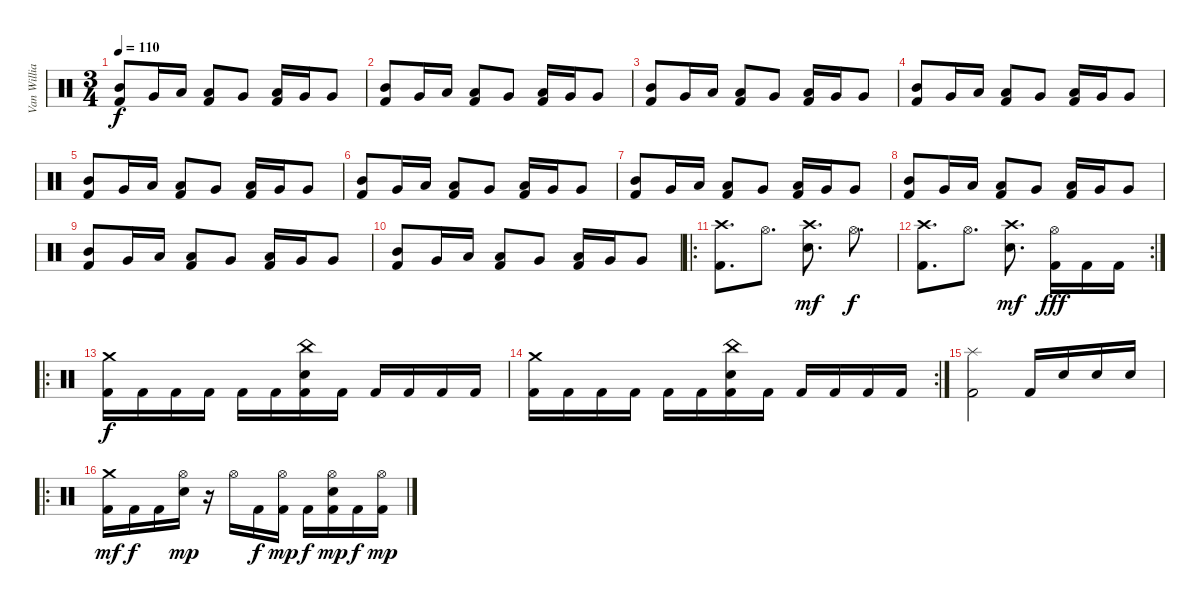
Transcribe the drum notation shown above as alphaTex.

\track ("Van Williams" "Van Willia") {instrument percussion}
\staff {score}
\articulation defaults
\ts (3 4)
\tempo 110
\clef neutral
\ks c
("Mid Tom (hit)" "Kick (hit) 2").8{dy f} "Very Low Tom (hit)".16 "Low Tom (hit)".16 ("Low Tom (hit)" "Kick (hit) 2").8 "Very Low Tom (hit)".8 ("Low Floor Tom (hit)" "Kick (hit) 2").16 "Very Low Tom (hit)".16 "Very Low Tom (hit)".8 |
("Mid Tom (hit)" "Kick (hit) 2").8 "Very Low Tom (hit)".16 "Low Tom (hit)".16 ("Low Tom (hit)" "Kick (hit) 2").8 "Very Low Tom (hit)".8 ("Low Floor Tom (hit)" "Kick (hit) 2").16 "Very Low Tom (hit)".16 "Very Low Tom (hit)".8 |
("Mid Tom (hit)" "Kick (hit) 2").8 "Very Low Tom (hit)".16 "Low Tom (hit)".16 ("Low Tom (hit)" "Kick (hit) 2").8 "Very Low Tom (hit)".8 ("Low Floor Tom (hit)" "Kick (hit) 2").16 "Very Low Tom (hit)".16 "Very Low Tom (hit)".8 |
("Mid Tom (hit)" "Kick (hit) 2").8 "Very Low Tom (hit)".16 "Low Tom (hit)".16 ("Low Tom (hit)" "Kick (hit) 2").8 "Very Low Tom (hit)".8 ("Low Floor Tom (hit)" "Kick (hit) 2").16 "Very Low Tom (hit)".16 "Very Low Tom (hit)".8 |
("Mid Tom (hit)" "Kick (hit) 2").8 "Very Low Tom (hit)".16 "Low Tom (hit)".16 ("Low Tom (hit)" "Kick (hit) 2").8 "Very Low Tom (hit)".8 ("Low Floor Tom (hit)" "Kick (hit) 2").16 "Very Low Tom (hit)".16 "Very Low Tom (hit)".8 |
("Mid Tom (hit)" "Kick (hit) 2").8 "Very Low Tom (hit)".16 "Low Tom (hit)".16 ("Low Tom (hit)" "Kick (hit) 2").8 "Very Low Tom (hit)".8 ("Low Floor Tom (hit)" "Kick (hit) 2").16 "Very Low Tom (hit)".16 "Very Low Tom (hit)".8 |
("Mid Tom (hit)" "Kick (hit) 2").8 "Very Low Tom (hit)".16 "Low Tom (hit)".16 ("Low Tom (hit)" "Kick (hit) 2").8 "Very Low Tom (hit)".8 ("Low Floor Tom (hit)" "Kick (hit) 2").16 "Very Low Tom (hit)".16 "Very Low Tom (hit)".8 |
("Mid Tom (hit)" "Kick (hit) 2").8 "Very Low Tom (hit)".16 "Low Tom (hit)".16 ("Low Tom (hit)" "Kick (hit) 2").8 "Very Low Tom (hit)".8 ("Low Floor Tom (hit)" "Kick (hit) 2").16 "Very Low Tom (hit)".16 "Very Low Tom (hit)".8 |
("Mid Tom (hit)" "Kick (hit) 2").8 "Very Low Tom (hit)".16 "Low Tom (hit)".16 ("Low Tom (hit)" "Kick (hit) 2").8 "Very Low Tom (hit)".8 ("Low Floor Tom (hit)" "Kick (hit) 2").16 "Very Low Tom (hit)".16 "Very Low Tom (hit)".8 |
("Mid Tom (hit)" "Kick (hit) 2").8 "Very Low Tom (hit)".16 "Low Tom (hit)".16 ("Low Tom (hit)" "Kick (hit) 2").8 "Very Low Tom (hit)".8 ("Low Floor Tom (hit)" "Kick (hit) 2").16 "Very Low Tom (hit)".16 "Very Low Tom (hit)".8 |
\ro
("Crash high (hit)" "Kick (hit) 2").8{d} "Hi-Hat (open)".8{d} ("Crash high (hit)" "Electric Snare (hit)").8{d dy mf} "Hi-Hat (open)".8{d dy f} |
\rc 2
("Crash high (hit)" "Kick (hit) 2").8{d} "Hi-Hat (open)".8{d} ("Crash high (hit)" "Electric Snare (hit)").8{d dy mf} ("Hi-Hat (open)" "Kick (hit) 2").16{dy fff} "Kick (hit) 2".16 "Kick (hit) 2".16 |
\ro
("Crash medium (hit)" "Kick (hit) 2").16{dy f} "Kick (hit) 2".16 "Kick (hit) 2".16 "Kick (hit) 2".16 "Kick (hit) 2".16 "Kick (hit) 2".16 ("China (hit)" "Electric Snare (hit)" "Kick (hit) 2").16 "Kick (hit) 2".16 "Kick (hit) 2".16 "Kick (hit) 2".16 "Kick (hit) 2".16 "Kick (hit) 2".16 |
\rc 2
("Crash medium (hit)" "Kick (hit) 2").16 "Kick (hit) 2".16 "Kick (hit) 2".16 "Kick (hit) 2".16 "Kick (hit) 2".16 "Kick (hit) 2".16 ("China (hit)" "Electric Snare (hit)" "Kick (hit) 2").16 "Kick (hit) 2".16 "Kick (hit) 2".16 "Kick (hit) 2".16 "Kick (hit) 2".16 "Kick (hit) 2".16 |
("Splash (hit)" "Kick (hit) 2").2 "Kick (hit) 2".16 "Electric Snare (hit)".16 "Electric Snare (hit)".16 "Electric Snare (hit)".16 |
\ro
("Crash medium (hit)" "Kick (hit) 2").16{dy mf} "Kick (hit) 2".16{dy f} "Kick (hit) 2".16 ("Hi-Hat (open)" "Electric Snare (hit)").16{dy mp} r.16 "Hi-Hat (open)".16 "Kick (hit) 2".16{dy f} ("Hi-Hat (open)" "Kick (hit) 2").16{dy mp} "Kick (hit) 2".16{dy f} ("Hi-Hat (open)" "Electric Snare (hit)" "Kick (hit) 2").16{dy mp} "Kick (hit) 2".16{dy f} ("Hi-Hat (open)" "Kick (hit) 2").16{dy mp}
